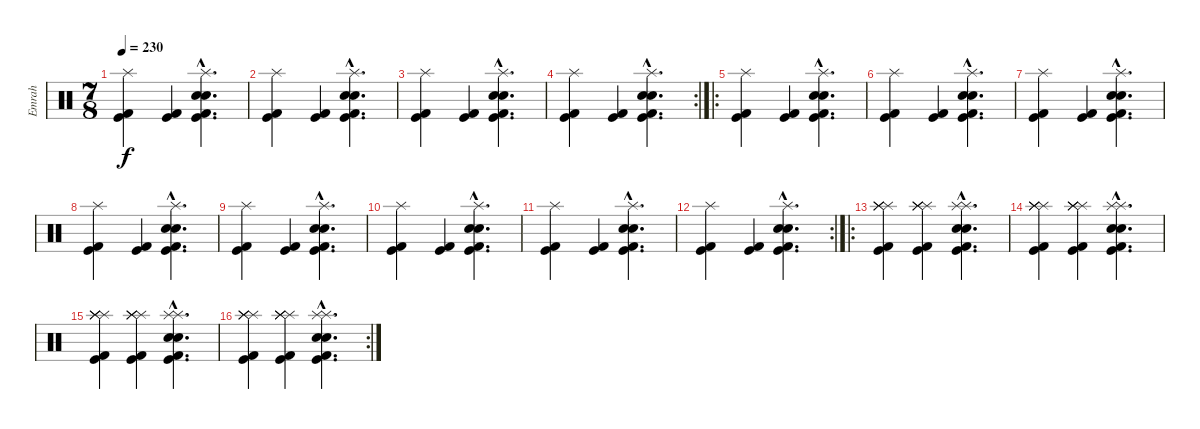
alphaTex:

\track ("Emrah" "Emrah") {instrument percussion}
\staff {score}
\articulation defaults
\ts (7 8)
\tempo 230
\clef neutral
\ks c
("Splash (hit)" "Kick (hit)" "Kick (hit) 2").4{dy f} ("Kick (hit)" "Kick (hit) 2").4 ("Splash (hit)"{hac} "Snare (hit) 2"{hac} "Snare (hit) 2"{hac} "Kick (hit)"{hac} "Kick (hit) 2"{hac}).4{d} |
("Splash (hit)" "Kick (hit)" "Kick (hit) 2").4 ("Kick (hit)" "Kick (hit) 2").4 ("Splash (hit)"{hac} "Snare (hit) 2"{hac} "Snare (hit) 2"{hac} "Kick (hit)"{hac} "Kick (hit) 2"{hac}).4{d} |
("Splash (hit)" "Kick (hit)" "Kick (hit) 2").4 ("Kick (hit)" "Kick (hit) 2").4 ("Splash (hit)"{hac} "Snare (hit) 2"{hac} "Snare (hit) 2"{hac} "Kick (hit)"{hac} "Kick (hit) 2"{hac}).4{d} |
\rc 2
("Splash (hit)" "Kick (hit)" "Kick (hit) 2").4 ("Kick (hit)" "Kick (hit) 2").4 ("Splash (hit)"{hac} "Snare (hit) 2"{hac} "Snare (hit) 2"{hac} "Kick (hit)"{hac} "Kick (hit) 2"{hac}).4{d} |
\ro
("Splash (hit)" "Kick (hit)" "Kick (hit) 2").4 ("Kick (hit)" "Kick (hit) 2").4 ("Splash (hit)"{hac} "Snare (hit) 2"{hac} "Snare (hit) 2"{hac} "Kick (hit)"{hac} "Kick (hit) 2"{hac}).4{d} |
("Splash (hit)" "Kick (hit)" "Kick (hit) 2").4 ("Kick (hit)" "Kick (hit) 2").4 ("Splash (hit)"{hac} "Snare (hit) 2"{hac} "Snare (hit) 2"{hac} "Kick (hit)"{hac} "Kick (hit) 2"{hac}).4{d} |
("Splash (hit)" "Kick (hit)" "Kick (hit) 2").4 ("Kick (hit)" "Kick (hit) 2").4 ("Splash (hit)"{hac} "Snare (hit) 2"{hac} "Snare (hit) 2"{hac} "Kick (hit)"{hac} "Kick (hit) 2"{hac}).4{d} |
("Splash (hit)" "Kick (hit)" "Kick (hit) 2").4 ("Kick (hit)" "Kick (hit) 2").4 ("Splash (hit)"{hac} "Snare (hit) 2"{hac} "Snare (hit) 2"{hac} "Kick (hit)"{hac} "Kick (hit) 2"{hac}).4{d} |
("Splash (hit)" "Kick (hit)" "Kick (hit) 2").4 ("Kick (hit)" "Kick (hit) 2").4 ("Splash (hit)"{hac} "Snare (hit) 2"{hac} "Snare (hit) 2"{hac} "Kick (hit)"{hac} "Kick (hit) 2"{hac}).4{d} |
("Splash (hit)" "Kick (hit)" "Kick (hit) 2").4 ("Kick (hit)" "Kick (hit) 2").4 ("Splash (hit)"{hac} "Snare (hit) 2"{hac} "Snare (hit) 2"{hac} "Kick (hit)"{hac} "Kick (hit) 2"{hac}).4{d} |
("Splash (hit)" "Kick (hit)" "Kick (hit) 2").4 ("Kick (hit)" "Kick (hit) 2").4 ("Splash (hit)"{hac} "Snare (hit) 2"{hac} "Snare (hit) 2"{hac} "Kick (hit)"{hac} "Kick (hit) 2"{hac}).4{d} |
\rc 2
("Splash (hit)" "Kick (hit)" "Kick (hit) 2").4 ("Kick (hit)" "Kick (hit) 2").4 ("Splash (hit)"{hac} "Snare (hit) 2"{hac} "Snare (hit) 2"{hac} "Kick (hit)"{hac} "Kick (hit) 2"{hac}).4{d} |
\ro
("Splash (hit)" "Splash (hit)" "Splash (hit)" "Splash (hit)" "Kick (hit)" "Kick (hit) 2").4 ("Splash (hit)" "Splash (hit)" "Splash (hit)" "Splash (hit)" "Kick (hit)" "Kick (hit) 2").4 ("Splash (hit)"{hac} "Splash (hit)"{hac} "Snare (hit) 2"{hac} "Snare (hit) 2"{hac} "Kick (hit)"{hac} "Kick (hit) 2"{hac}).4{d} |
("Splash (hit)" "Splash (hit)" "Splash (hit)" "Splash (hit)" "Kick (hit)" "Kick (hit) 2").4 ("Splash (hit)" "Splash (hit)" "Splash (hit)" "Splash (hit)" "Kick (hit)" "Kick (hit) 2").4 ("Splash (hit)"{hac} "Splash (hit)"{hac} "Snare (hit) 2"{hac} "Snare (hit) 2"{hac} "Kick (hit)"{hac} "Kick (hit) 2"{hac}).4{d} |
("Splash (hit)" "Splash (hit)" "Splash (hit)" "Splash (hit)" "Kick (hit)" "Kick (hit) 2").4 ("Splash (hit)" "Splash (hit)" "Splash (hit)" "Splash (hit)" "Kick (hit)" "Kick (hit) 2").4 ("Splash (hit)"{hac} "Splash (hit)"{hac} "Snare (hit) 2"{hac} "Snare (hit) 2"{hac} "Kick (hit)"{hac} "Kick (hit) 2"{hac}).4{d} |
\rc 2
("Splash (hit)" "Splash (hit)" "Splash (hit)" "Splash (hit)" "Kick (hit)" "Kick (hit) 2").4 ("Splash (hit)" "Splash (hit)" "Splash (hit)" "Splash (hit)" "Kick (hit)" "Kick (hit) 2").4 ("Splash (hit)"{hac} "Splash (hit)"{hac} "Snare (hit) 2"{hac} "Snare (hit) 2"{hac} "Kick (hit)"{hac} "Kick (hit) 2"{hac}).4{d}
